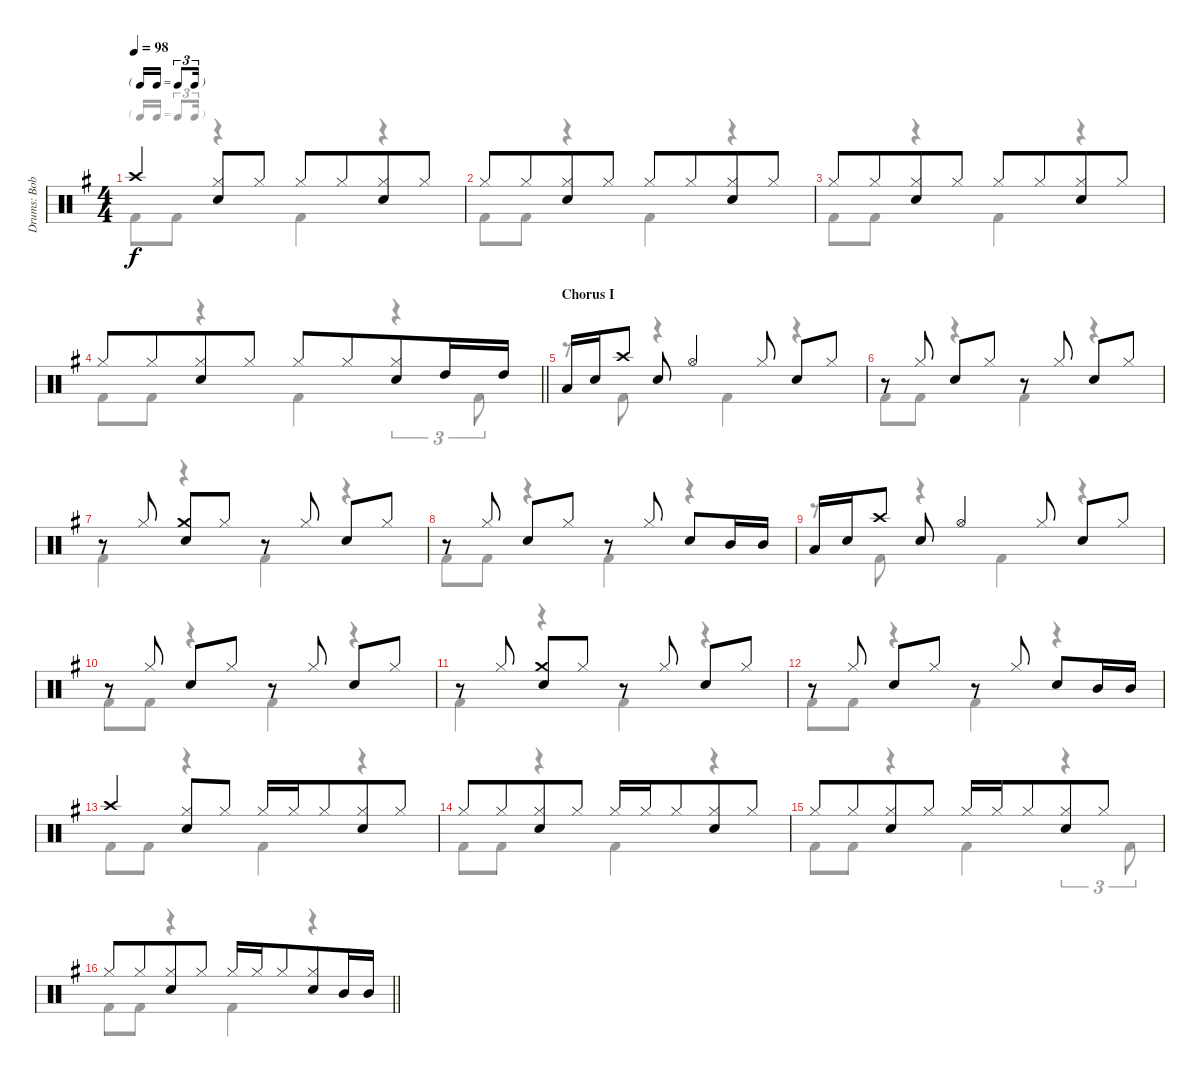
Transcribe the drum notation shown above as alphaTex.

\track ("Drums: Bobby" "Drums: Bob") {instrument percussion}
\staff {score}
\articulation defaults
\voice
\ts (4 4)
\tf triplet16th
\tempo 98
\clef neutral
\ks g "Crash high (hit)".4{dy f}
("Hi-Hat (closed)" "Snare (hit) 2").8 "Hi-Hat (closed)".8 "Hi-Hat (closed)".8 "Hi-Hat (closed)".8{beam merge} ("Hi-Hat (closed)" "Snare (hit) 2").8 "Hi-Hat (closed)".8 |
"Hi-Hat (closed)".8 "Hi-Hat (closed)".8{beam merge} ("Hi-Hat (closed)" "Snare (hit) 2").8 "Hi-Hat (closed)".8 "Hi-Hat (closed)".8 "Hi-Hat (closed)".8{beam merge} ("Hi-Hat (closed)" "Snare (hit) 2").8 "Hi-Hat (closed)".8 |
"Hi-Hat (closed)".8 "Hi-Hat (closed)".8{beam merge} ("Hi-Hat (closed)" "Snare (hit) 2").8 "Hi-Hat (closed)".8 "Hi-Hat (closed)".8 "Hi-Hat (closed)".8{beam merge} ("Hi-Hat (closed)" "Snare (hit) 2").8 "Hi-Hat (closed)".8 |
\barLineRight lightlight "Hi-Hat (closed)".8 "Hi-Hat (closed)".8{beam merge}
("Hi-Hat (closed)" "Snare (hit) 2").8 "Hi-Hat (closed)".8 "Hi-Hat (closed)".8 "Hi-Hat (closed)".8{beam merge} ("Hi-Hat (closed)" "Snare (hit) 2").8 "High Tom (hit)".16 "High Tom (hit)".16 |
\section ("" "Chorus I")
"Low Tom (hit)".16 "Snare (hit) 2".16 "Crash high (hit)".8 "Snare (hit) 2".8 "Hi-Hat (open)".4 "Hi-Hat (closed)".8 "Snare (hit) 2".8 "Hi-Hat (closed)".8 |
r.8 "Hi-Hat (closed)".8 "Snare (hit) 2".8 "Hi-Hat (closed)".8 r.8 "Hi-Hat (closed)".8 "Snare (hit) 2".8 "Hi-Hat (closed)".8 |
r.8 "Hi-Hat (closed)".8 ("Crash medium (hit)" "Snare (hit) 2").8 "Hi-Hat (closed)".8 r.8 "Hi-Hat (closed)".8 "Snare (hit) 2".8 "Hi-Hat (closed)".8 |
r.8 "Hi-Hat (closed)".8 "Snare (hit) 2".8 "Hi-Hat (closed)".8 r.8 "Hi-Hat (closed)".8 "Snare (hit) 2".8 "Mid Tom (hit)".16 "Mid Tom (hit)".16 |
"Low Tom (hit)".16 "Snare (hit) 2".16 "Crash high (hit)".8 "Snare (hit) 2".8 "Hi-Hat (open)".4 "Hi-Hat (closed)".8 "Snare (hit) 2".8 "Hi-Hat (closed)".8 |
r.8 "Hi-Hat (closed)".8 "Snare (hit) 2".8 "Hi-Hat (closed)".8 r.8 "Hi-Hat (closed)".8 "Snare (hit) 2".8 "Hi-Hat (closed)".8 |
r.8 "Hi-Hat (closed)".8 ("Crash medium (hit)" "Snare (hit) 2").8 "Hi-Hat (closed)".8 r.8 "Hi-Hat (closed)".8 "Snare (hit) 2".8 "Hi-Hat (closed)".8 |
r.8 "Hi-Hat (closed)".8 "Snare (hit) 2".8 "Hi-Hat (closed)".8 r.8 "Hi-Hat (closed)".8 "Snare (hit) 2".8 "Mid Tom (hit)".16 "Mid Tom (hit)".16 |
"Crash high (hit)".4{beam merge} ("Hi-Hat (closed)" "Snare (hit) 2").8 "Hi-Hat (closed)".8 "Hi-Hat (closed)".16 "Hi-Hat (closed)".16 "Hi-Hat (closed)".8{beam merge} ("Hi-Hat (closed)" "Snare (hit) 2").8 "Hi-Hat (closed)".8 |
"Hi-Hat (closed)".8 "Hi-Hat (closed)".8{beam merge} ("Hi-Hat (closed)" "Snare (hit) 2").8 "Hi-Hat (closed)".8 "Hi-Hat (closed)".16 "Hi-Hat (closed)".16 "Hi-Hat (closed)".8{beam merge} ("Hi-Hat (closed)" "Snare (hit) 2").8 "Hi-Hat (closed)".8 |
"Hi-Hat (closed)".8 "Hi-Hat (closed)".8{beam merge} ("Hi-Hat (closed)" "Snare (hit) 2").8 "Hi-Hat (closed)".8 "Hi-Hat (closed)".16 "Hi-Hat (closed)".16 "Hi-Hat (closed)".8{beam merge} ("Hi-Hat (closed)" "Snare (hit) 2").8 "Hi-Hat (closed)".8 |
\barLineRight lightlight "Hi-Hat (closed)".8 "Hi-Hat (closed)".8{beam merge}
("Hi-Hat (closed)" "Snare (hit) 2").8 "Hi-Hat (closed)".8 "Hi-Hat (closed)".16 "Hi-Hat (closed)".16 "Hi-Hat (closed)".8{beam merge} ("Hi-Hat (closed)" "Snare (hit) 2").8 "Mid Tom (hit)".16 "Mid Tom (hit)".16
\voice
\clef neutral
\ottava regular
\simile none
\ks g "Kick (hit) 2".8{dy f} "Kick (hit) 2".8
r.4 "Kick (hit) 2".4 r.4 |
"Kick (hit) 2".8 "Kick (hit) 2".8 r.4 "Kick (hit) 2".4 r.4 |
"Kick (hit) 2".8 "Kick (hit) 2".8 r.4 "Kick (hit) 2".4 r.4 |
\barLineRight lightlight "Kick (hit) 2".8 "Kick (hit) 2".8
r.4 "Kick (hit) 2".4 r.4{tu (3 2)} "Kick (hit) 2".8{tu (3 2)} |
r.8 "Kick (hit) 2".8 r.4 "Kick (hit) 2".4 r.4 |
"Kick (hit) 2".8 "Kick (hit) 2".8 r.4 "Kick (hit) 2".4 r.4 |
"Kick (hit) 2".4 r.4 "Kick (hit) 2".4 r.4 |
"Kick (hit) 2".8 "Kick (hit) 2".8 r.4 "Kick (hit) 2".4 r.4 |
r.8 "Kick (hit) 2".8 r.4 "Kick (hit) 2".4 r.4 |
"Kick (hit) 2".8 "Kick (hit) 2".8 r.4 "Kick (hit) 2".4 r.4 |
"Kick (hit) 2".4 r.4 "Kick (hit) 2".4 r.4 |
"Kick (hit) 2".8 "Kick (hit) 2".8 r.4 "Kick (hit) 2".4 r.4 |
"Kick (hit) 2".8 "Kick (hit) 2".8 r.4 "Kick (hit) 2".4 r.4 |
"Kick (hit) 2".8 "Kick (hit) 2".8 r.4 "Kick (hit) 2".4 r.4 |
"Kick (hit) 2".8 "Kick (hit) 2".8 r.4 "Kick (hit) 2".4 r.4{tu (3 2)} "Kick (hit) 2".8{tu (3 2)} |
\barLineRight lightlight "Kick (hit) 2".8 "Kick (hit) 2".8
r.4 "Kick (hit) 2".4 r.4
